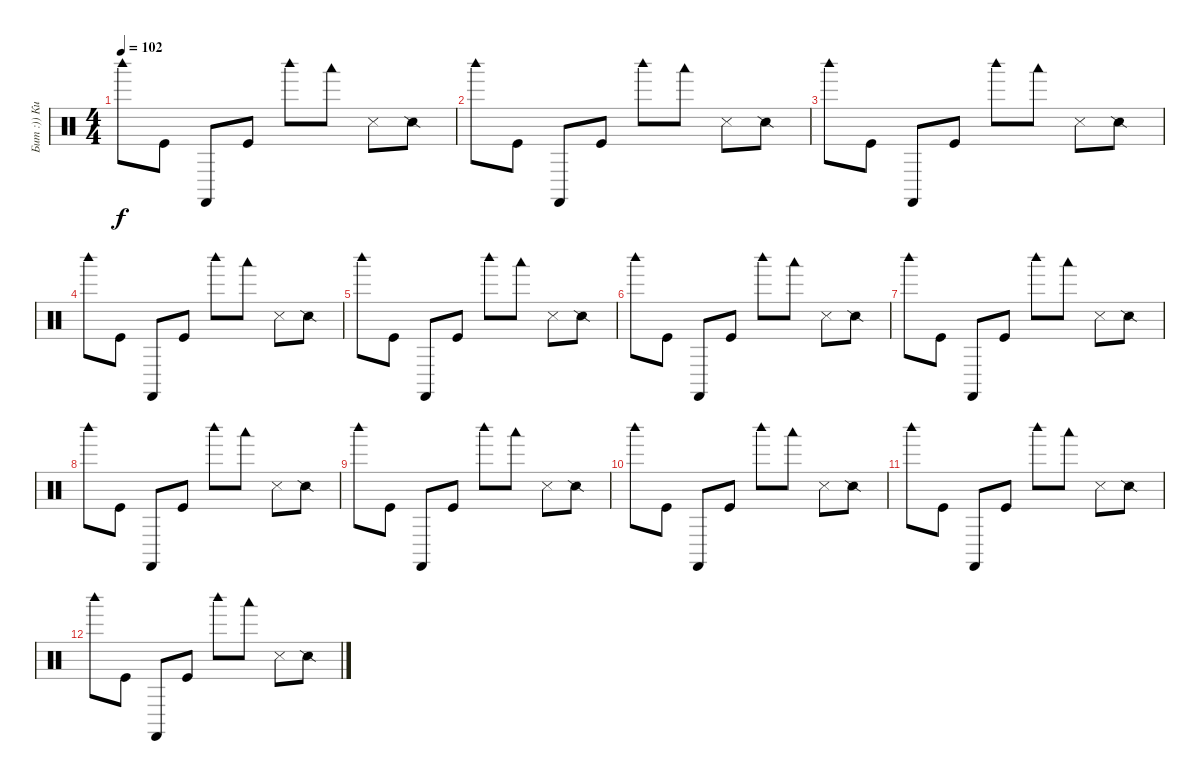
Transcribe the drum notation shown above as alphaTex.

\track ("Бит :)) Кита" "Бит :)) Ки") {instrument percussion}
\staff {score}
\articulation defaults
\ts (4 4)
\tempo 102
\clef neutral
\ks c "Woodblock high (hit)".8{dy f} "Kick (hit)".8 "Castanets (hit)".8 "Kick (hit)".8 "Woodblock high (hit)".8 "Woodblock low (hit)".8 "Snare (side stick) 3".8 "Snare (side stick) 2".8
|
"Woodblock high (hit)".8 "Kick (hit)".8 "Castanets (hit)".8 "Kick (hit)".8 "Woodblock high (hit)".8 "Woodblock low (hit)".8 "Snare (side stick) 3".8 "Snare (side stick) 2".8 |
"Woodblock high (hit)".8 "Kick (hit)".8 "Castanets (hit)".8 "Kick (hit)".8 "Woodblock high (hit)".8 "Woodblock low (hit)".8 "Snare (side stick) 3".8 "Snare (side stick) 2".8 |
"Woodblock high (hit)".8 "Kick (hit)".8 "Castanets (hit)".8 "Kick (hit)".8 "Woodblock high (hit)".8 "Woodblock low (hit)".8 "Snare (side stick) 3".8 "Snare (side stick) 2".8 |
"Woodblock high (hit)".8 "Kick (hit)".8 "Castanets (hit)".8 "Kick (hit)".8 "Woodblock high (hit)".8 "Woodblock low (hit)".8 "Snare (side stick) 3".8 "Snare (side stick) 2".8 |
"Woodblock high (hit)".8 "Kick (hit)".8 "Castanets (hit)".8 "Kick (hit)".8 "Woodblock high (hit)".8 "Woodblock low (hit)".8 "Snare (side stick) 3".8 "Snare (side stick) 2".8 |
"Woodblock high (hit)".8 "Kick (hit)".8 "Castanets (hit)".8 "Kick (hit)".8 "Woodblock high (hit)".8 "Woodblock low (hit)".8 "Snare (side stick) 3".8 "Snare (side stick) 2".8 |
"Woodblock high (hit)".8 "Kick (hit)".8 "Castanets (hit)".8 "Kick (hit)".8 "Woodblock high (hit)".8 "Woodblock low (hit)".8 "Snare (side stick) 3".8 "Snare (side stick) 2".8 |
"Woodblock high (hit)".8 "Kick (hit)".8 "Castanets (hit)".8 "Kick (hit)".8 "Woodblock high (hit)".8 "Woodblock low (hit)".8 "Snare (side stick) 3".8 "Snare (side stick) 2".8 |
"Woodblock high (hit)".8 "Kick (hit)".8 "Castanets (hit)".8 "Kick (hit)".8 "Woodblock high (hit)".8 "Woodblock low (hit)".8 "Snare (side stick) 3".8 "Snare (side stick) 2".8 |
"Woodblock high (hit)".8 "Kick (hit)".8 "Castanets (hit)".8 "Kick (hit)".8 "Woodblock high (hit)".8 "Woodblock low (hit)".8 "Snare (side stick) 3".8 "Snare (side stick) 2".8 |
"Woodblock high (hit)".8 "Kick (hit)".8 "Castanets (hit)".8 "Kick (hit)".8 "Woodblock high (hit)".8 "Woodblock low (hit)".8 "Snare (side stick) 3".8 "Snare (side stick) 2".8
